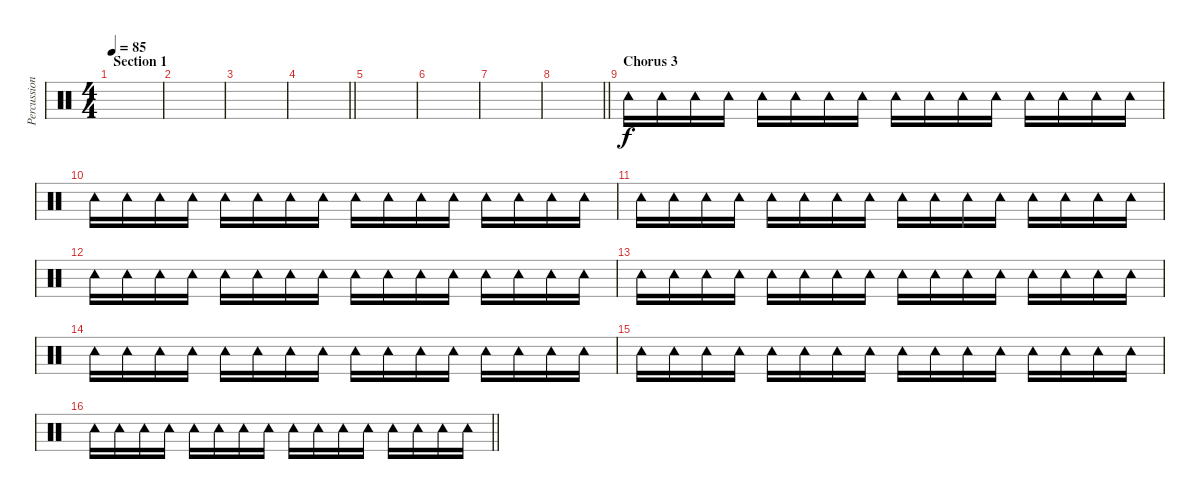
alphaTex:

\track ("Percussion" "Percussion") {instrument percussion}
\staff {score}
\articulation defaults
\ts (4 4)
\section ("" "Section 1")
\tempo 85
\clef neutral
\ks c
|
|
|
\barLineRight lightlight
|
|
|
|
\barLineRight lightlight
|
\section ("" "Chorus 3")
"Tambourine (hit)".16 "Tambourine (hit)".16 "Tambourine (hit)".16 "Tambourine (hit)".16 "Tambourine (hit)".16 "Tambourine (hit)".16 "Tambourine (hit)".16 "Tambourine (hit)".16 "Tambourine (hit)".16 "Tambourine (hit)".16 "Tambourine (hit)".16 "Tambourine (hit)".16 "Tambourine (hit)".16 "Tambourine (hit)".16 "Tambourine (hit)".16 "Tambourine (hit)".16 |
"Tambourine (hit)".16 "Tambourine (hit)".16 "Tambourine (hit)".16 "Tambourine (hit)".16 "Tambourine (hit)".16 "Tambourine (hit)".16 "Tambourine (hit)".16 "Tambourine (hit)".16 "Tambourine (hit)".16 "Tambourine (hit)".16 "Tambourine (hit)".16 "Tambourine (hit)".16 "Tambourine (hit)".16 "Tambourine (hit)".16 "Tambourine (hit)".16 "Tambourine (hit)".16 |
"Tambourine (hit)".16 "Tambourine (hit)".16 "Tambourine (hit)".16 "Tambourine (hit)".16 "Tambourine (hit)".16 "Tambourine (hit)".16 "Tambourine (hit)".16 "Tambourine (hit)".16 "Tambourine (hit)".16 "Tambourine (hit)".16 "Tambourine (hit)".16 "Tambourine (hit)".16 "Tambourine (hit)".16 "Tambourine (hit)".16 "Tambourine (hit)".16 "Tambourine (hit)".16 |
"Tambourine (hit)".16 "Tambourine (hit)".16 "Tambourine (hit)".16 "Tambourine (hit)".16 "Tambourine (hit)".16 "Tambourine (hit)".16 "Tambourine (hit)".16 "Tambourine (hit)".16 "Tambourine (hit)".16 "Tambourine (hit)".16 "Tambourine (hit)".16 "Tambourine (hit)".16 "Tambourine (hit)".16 "Tambourine (hit)".16 "Tambourine (hit)".16 "Tambourine (hit)".16 |
"Tambourine (hit)".16 "Tambourine (hit)".16 "Tambourine (hit)".16 "Tambourine (hit)".16 "Tambourine (hit)".16 "Tambourine (hit)".16 "Tambourine (hit)".16 "Tambourine (hit)".16 "Tambourine (hit)".16 "Tambourine (hit)".16 "Tambourine (hit)".16 "Tambourine (hit)".16 "Tambourine (hit)".16 "Tambourine (hit)".16 "Tambourine (hit)".16 "Tambourine (hit)".16 |
"Tambourine (hit)".16 "Tambourine (hit)".16 "Tambourine (hit)".16 "Tambourine (hit)".16 "Tambourine (hit)".16 "Tambourine (hit)".16 "Tambourine (hit)".16 "Tambourine (hit)".16 "Tambourine (hit)".16 "Tambourine (hit)".16 "Tambourine (hit)".16 "Tambourine (hit)".16 "Tambourine (hit)".16 "Tambourine (hit)".16 "Tambourine (hit)".16 "Tambourine (hit)".16 |
"Tambourine (hit)".16 "Tambourine (hit)".16 "Tambourine (hit)".16 "Tambourine (hit)".16 "Tambourine (hit)".16 "Tambourine (hit)".16 "Tambourine (hit)".16 "Tambourine (hit)".16 "Tambourine (hit)".16 "Tambourine (hit)".16 "Tambourine (hit)".16 "Tambourine (hit)".16 "Tambourine (hit)".16 "Tambourine (hit)".16 "Tambourine (hit)".16 "Tambourine (hit)".16 |
\barLineRight lightlight "Tambourine (hit)".16 "Tambourine (hit)".16 "Tambourine (hit)".16 "Tambourine (hit)".16 "Tambourine (hit)".16 "Tambourine (hit)".16 "Tambourine (hit)".16 "Tambourine (hit)".16 "Tambourine (hit)".16 "Tambourine (hit)".16 "Tambourine (hit)".16 "Tambourine (hit)".16 "Tambourine (hit)".16 "Tambourine (hit)".16 "Tambourine (hit)".16 "Tambourine (hit)".16
